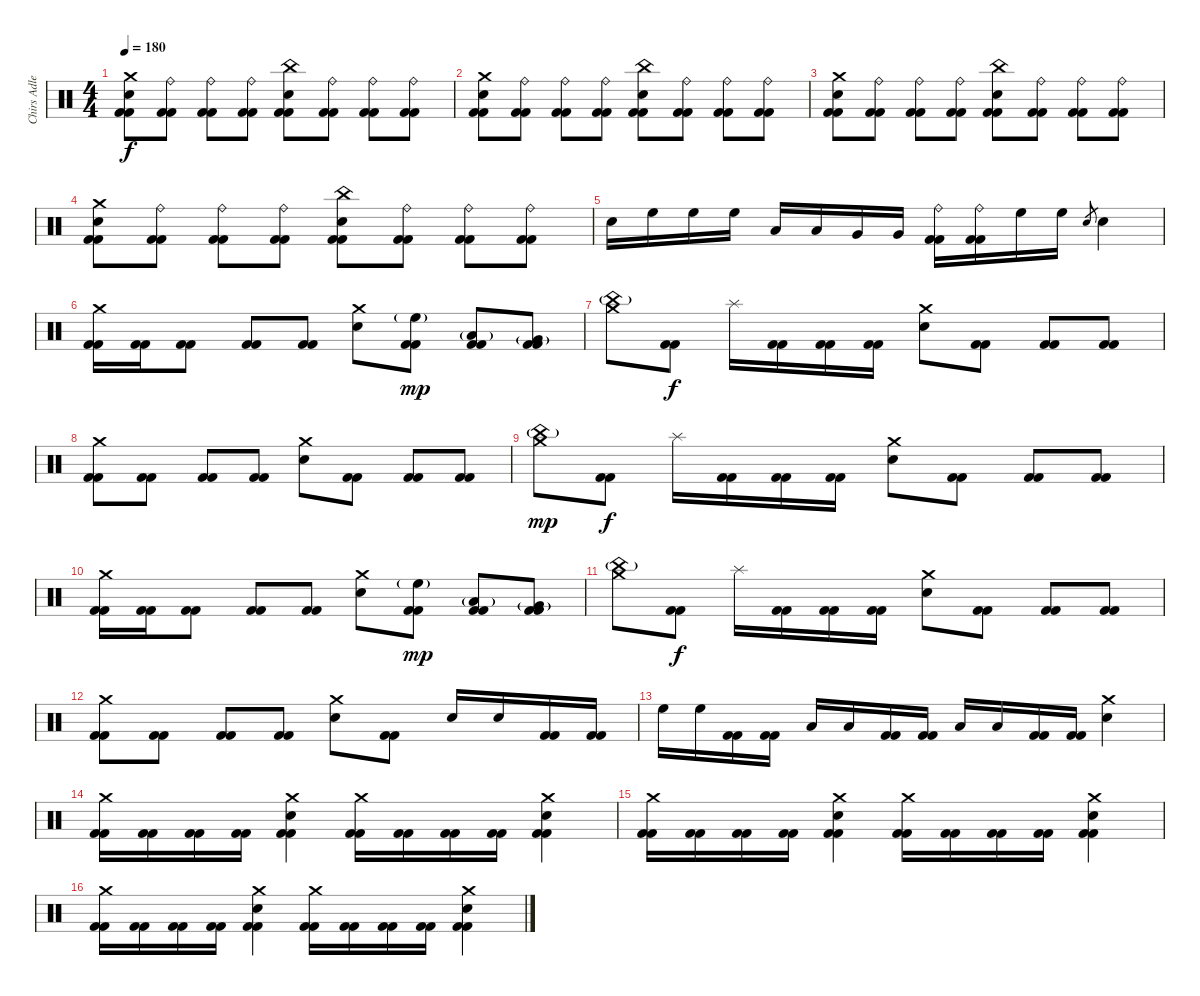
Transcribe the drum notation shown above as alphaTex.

\track ("Chirs Adler" "Chirs Adle") {instrument percussion}
\staff {score}
\articulation defaults
\ts (4 4)
\tempo 180
\clef neutral
\ks c
("Crash medium (hit)" "Electric Snare (hit)" "Kick (hit) 2" "Kick (hit) 2").8{dy f} ("Ride (bell)" "Kick (hit) 2" "Kick (hit) 2").8 ("Ride (bell)" "Kick (hit) 2" "Kick (hit) 2").8 ("Ride (bell)" "Kick (hit) 2" "Kick (hit) 2").8 ("China (hit)" "Electric Snare (hit)" "Kick (hit) 2" "Kick (hit) 2").8 ("Ride (bell)" "Kick (hit) 2" "Kick (hit) 2").8 ("Ride (bell)" "Kick (hit) 2" "Kick (hit) 2").8 ("Ride (bell)" "Kick (hit) 2" "Kick (hit) 2").8 |
("Crash medium (hit)" "Electric Snare (hit)" "Kick (hit) 2" "Kick (hit) 2").8 ("Ride (bell)" "Kick (hit) 2" "Kick (hit) 2").8 ("Ride (bell)" "Kick (hit) 2" "Kick (hit) 2").8 ("Ride (bell)" "Kick (hit) 2" "Kick (hit) 2").8 ("China (hit)" "Electric Snare (hit)" "Kick (hit) 2" "Kick (hit) 2").8 ("Ride (bell)" "Kick (hit) 2" "Kick (hit) 2").8 ("Ride (bell)" "Kick (hit) 2" "Kick (hit) 2").8 ("Ride (bell)" "Kick (hit) 2" "Kick (hit) 2").8 |
("Crash medium (hit)" "Electric Snare (hit)" "Kick (hit) 2" "Kick (hit) 2").8 ("Ride (bell)" "Kick (hit) 2" "Kick (hit) 2").8 ("Ride (bell)" "Kick (hit) 2" "Kick (hit) 2").8 ("Ride (bell)" "Kick (hit) 2" "Kick (hit) 2").8 ("China (hit)" "Electric Snare (hit)" "Kick (hit) 2" "Kick (hit) 2").8 ("Ride (bell)" "Kick (hit) 2" "Kick (hit) 2").8 ("Ride (bell)" "Kick (hit) 2" "Kick (hit) 2").8 ("Ride (bell)" "Kick (hit) 2" "Kick (hit) 2").8 |
("Crash medium (hit)" "Electric Snare (hit)" "Kick (hit) 2" "Kick (hit) 2").8 ("Ride (bell)" "Kick (hit) 2" "Kick (hit) 2").8 ("Ride (bell)" "Kick (hit) 2" "Kick (hit) 2").8 ("Ride (bell)" "Kick (hit) 2" "Kick (hit) 2").8 ("China (hit)" "Electric Snare (hit)" "Kick (hit) 2" "Kick (hit) 2").8 ("Ride (bell)" "Kick (hit) 2" "Kick (hit) 2").8 ("Ride (bell)" "Kick (hit) 2" "Kick (hit) 2").8 ("Ride (bell)" "Kick (hit) 2" "Kick (hit) 2").8 |
"Electric Snare (hit)".16 "High Floor Tom (hit)".16 "High Floor Tom (hit)".16 "High Floor Tom (hit)".16 "Low Tom (hit)".16 "Low Tom (hit)".16 "Very Low Tom (hit)".16 "Very Low Tom (hit)".16 ("Ride (bell)" "Kick (hit) 2" "Kick (hit) 2").16 ("Ride (bell)" "Kick (hit) 2" "Kick (hit) 2").16 "High Floor Tom (hit)".16 "High Floor Tom (hit)".16 "Electric Snare (hit)".8{gr} "Electric Snare (hit)".4 |
\section ("" "")
("Crash medium (hit)" "Kick (hit) 2" "Kick (hit) 2").16 ("Kick (hit) 2" "Kick (hit) 2").16 ("Kick (hit) 2" "Kick (hit) 2").8 ("Kick (hit) 2" "Kick (hit) 2").8 ("Kick (hit) 2" "Kick (hit) 2").8 ("Crash medium (hit)" "Electric Snare (hit)").8 ("High Floor Tom (hit)"{g} "Kick (hit) 2" "Kick (hit) 2").8{dy mp} ("Low Tom (hit)"{g} "Kick (hit) 2" "Kick (hit) 2").8 ("Very Low Tom (hit)"{g} "Kick (hit) 2" "Kick (hit) 2").8 |
("Crash medium (hit)" "China (hit)"{g}).8 ("Kick (hit) 2" "Kick (hit) 2").8{dy f} "Splash (hit)".16 ("Kick (hit) 2" "Kick (hit) 2").16 ("Kick (hit) 2" "Kick (hit) 2").16 ("Kick (hit) 2" "Kick (hit) 2").16 ("Crash medium (hit)" "Electric Snare (hit)").8 ("Kick (hit) 2" "Kick (hit) 2").8 ("Kick (hit) 2" "Kick (hit) 2").8 ("Kick (hit) 2" "Kick (hit) 2").8 |
("Crash medium (hit)" "Kick (hit) 2" "Kick (hit) 2").8 ("Kick (hit) 2" "Kick (hit) 2").8 ("Kick (hit) 2" "Kick (hit) 2").8 ("Kick (hit) 2" "Kick (hit) 2").8 ("Crash medium (hit)" "Electric Snare (hit)").8 ("Kick (hit) 2" "Kick (hit) 2").8 ("Kick (hit) 2" "Kick (hit) 2").8 ("Kick (hit) 2" "Kick (hit) 2").8 |
("Crash medium (hit)" "China (hit)"{g}).8{dy mp} ("Kick (hit) 2" "Kick (hit) 2").8{dy f} "Splash (hit)".16 ("Kick (hit) 2" "Kick (hit) 2").16 ("Kick (hit) 2" "Kick (hit) 2").16 ("Kick (hit) 2" "Kick (hit) 2").16 ("Crash medium (hit)" "Electric Snare (hit)").8 ("Kick (hit) 2" "Kick (hit) 2").8 ("Kick (hit) 2" "Kick (hit) 2").8 ("Kick (hit) 2" "Kick (hit) 2").8 |
("Crash medium (hit)" "Kick (hit) 2" "Kick (hit) 2").16 ("Kick (hit) 2" "Kick (hit) 2").16 ("Kick (hit) 2" "Kick (hit) 2").8 ("Kick (hit) 2" "Kick (hit) 2").8 ("Kick (hit) 2" "Kick (hit) 2").8 ("Crash medium (hit)" "Electric Snare (hit)").8 ("High Floor Tom (hit)"{g} "Kick (hit) 2" "Kick (hit) 2").8{dy mp} ("Low Tom (hit)"{g} "Kick (hit) 2" "Kick (hit) 2").8 ("Very Low Tom (hit)"{g} "Kick (hit) 2" "Kick (hit) 2").8 |
("Crash medium (hit)" "China (hit)"{g}).8 ("Kick (hit) 2" "Kick (hit) 2").8{dy f} "Splash (hit)".16 ("Kick (hit) 2" "Kick (hit) 2").16 ("Kick (hit) 2" "Kick (hit) 2").16 ("Kick (hit) 2" "Kick (hit) 2").16 ("Crash medium (hit)" "Electric Snare (hit)").8 ("Kick (hit) 2" "Kick (hit) 2").8 ("Kick (hit) 2" "Kick (hit) 2").8 ("Kick (hit) 2" "Kick (hit) 2").8 |
("Crash medium (hit)" "Kick (hit) 2" "Kick (hit) 2").8 ("Kick (hit) 2" "Kick (hit) 2").8 ("Kick (hit) 2" "Kick (hit) 2").8 ("Kick (hit) 2" "Kick (hit) 2").8 ("Crash medium (hit)" "Electric Snare (hit)").8 ("Kick (hit) 2" "Kick (hit) 2").8 "Electric Snare (hit)".16 "Electric Snare (hit)".16 ("Kick (hit) 2" "Kick (hit) 2").16 ("Kick (hit) 2" "Kick (hit) 2").16 |
"High Floor Tom (hit)".16 "High Floor Tom (hit)".16 ("Kick (hit) 2" "Kick (hit) 2").16 ("Kick (hit) 2" "Kick (hit) 2").16 "Low Tom (hit)".16 "Low Tom (hit)".16 ("Kick (hit) 2" "Kick (hit) 2").16 ("Kick (hit) 2" "Kick (hit) 2").16 "Low Floor Tom (hit)".16 "Low Floor Tom (hit)".16 ("Kick (hit) 2" "Kick (hit) 2").16 ("Kick (hit) 2" "Kick (hit) 2").16 ("Crash medium (hit)" "Electric Snare (hit)").4 |
\section ("" "")
("Crash medium (hit)" "Kick (hit) 2" "Kick (hit) 2").16 ("Kick (hit) 2" "Kick (hit) 2").16 ("Kick (hit) 2" "Kick (hit) 2").16 ("Kick (hit) 2" "Kick (hit) 2").16 ("Crash medium (hit)" "Electric Snare (hit)" "Kick (hit) 2" "Kick (hit) 2").4 ("Crash medium (hit)" "Kick (hit) 2" "Kick (hit) 2").16 ("Kick (hit) 2" "Kick (hit) 2").16 ("Kick (hit) 2" "Kick (hit) 2").16 ("Kick (hit) 2" "Kick (hit) 2").16 ("Crash medium (hit)" "Electric Snare (hit)" "Kick (hit) 2" "Kick (hit) 2").4 |
("Crash medium (hit)" "Kick (hit) 2" "Kick (hit) 2").16 ("Kick (hit) 2" "Kick (hit) 2").16 ("Kick (hit) 2" "Kick (hit) 2").16 ("Kick (hit) 2" "Kick (hit) 2").16 ("Crash medium (hit)" "Electric Snare (hit)" "Kick (hit) 2" "Kick (hit) 2").4 ("Crash medium (hit)" "Kick (hit) 2" "Kick (hit) 2").16 ("Kick (hit) 2" "Kick (hit) 2").16 ("Kick (hit) 2" "Kick (hit) 2").16 ("Kick (hit) 2" "Kick (hit) 2").16 ("Crash medium (hit)" "Electric Snare (hit)" "Kick (hit) 2" "Kick (hit) 2").4 |
("Crash medium (hit)" "Kick (hit) 2" "Kick (hit) 2").16 ("Kick (hit) 2" "Kick (hit) 2").16 ("Kick (hit) 2" "Kick (hit) 2").16 ("Kick (hit) 2" "Kick (hit) 2").16 ("Crash medium (hit)" "Electric Snare (hit)" "Kick (hit) 2" "Kick (hit) 2").4 ("Crash medium (hit)" "Kick (hit) 2" "Kick (hit) 2").16 ("Kick (hit) 2" "Kick (hit) 2").16 ("Kick (hit) 2" "Kick (hit) 2").16 ("Kick (hit) 2" "Kick (hit) 2").16 ("Crash medium (hit)" "Electric Snare (hit)" "Kick (hit) 2" "Kick (hit) 2").4
